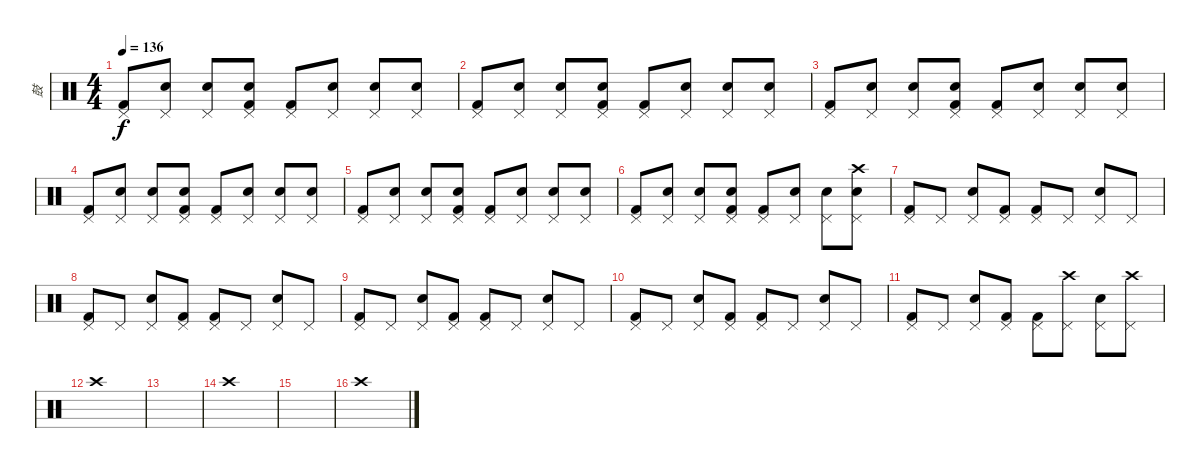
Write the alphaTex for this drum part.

\track ("鼓" "鼓") {instrument percussion}
\staff {score}
\articulation defaults
\ts (4 4)
\tempo 136
\clef neutral
\ks c
("Pedal Hi-Hat (hit)" "Kick (hit) 2").8{dy f} ("Metronome (bell)" "Pedal Hi-Hat (hit)").8 ("Pedal Hi-Hat (hit)" "Electric Snare (hit)").8 ("Metronome (bell)" "Pedal Hi-Hat (hit)" "Kick (hit) 2").8 ("Pedal Hi-Hat (hit)" "Kick (hit) 2").8 ("Metronome (bell)" "Pedal Hi-Hat (hit)").8 ("Pedal Hi-Hat (hit)" "Electric Snare (hit)").8 ("Metronome (bell)" "Pedal Hi-Hat (hit)").8 |
("Pedal Hi-Hat (hit)" "Kick (hit) 2").8 ("Metronome (bell)" "Pedal Hi-Hat (hit)").8 ("Pedal Hi-Hat (hit)" "Electric Snare (hit)").8 ("Metronome (bell)" "Pedal Hi-Hat (hit)" "Kick (hit) 2").8 ("Pedal Hi-Hat (hit)" "Kick (hit) 2").8 ("Metronome (bell)" "Pedal Hi-Hat (hit)").8 ("Pedal Hi-Hat (hit)" "Electric Snare (hit)").8 ("Metronome (bell)" "Pedal Hi-Hat (hit)").8 |
("Pedal Hi-Hat (hit)" "Kick (hit) 2").8 ("Metronome (bell)" "Pedal Hi-Hat (hit)").8 ("Pedal Hi-Hat (hit)" "Electric Snare (hit)").8 ("Metronome (bell)" "Pedal Hi-Hat (hit)" "Kick (hit) 2").8 ("Pedal Hi-Hat (hit)" "Kick (hit) 2").8 ("Metronome (bell)" "Pedal Hi-Hat (hit)").8 ("Pedal Hi-Hat (hit)" "Electric Snare (hit)").8 ("Metronome (bell)" "Pedal Hi-Hat (hit)").8 |
("Pedal Hi-Hat (hit)" "Kick (hit) 2").8 ("Metronome (bell)" "Pedal Hi-Hat (hit)").8 ("Pedal Hi-Hat (hit)" "Electric Snare (hit)").8 ("Metronome (bell)" "Pedal Hi-Hat (hit)" "Kick (hit) 2").8 ("Pedal Hi-Hat (hit)" "Kick (hit) 2").8 ("Metronome (bell)" "Pedal Hi-Hat (hit)").8 ("Pedal Hi-Hat (hit)" "Electric Snare (hit)").8 ("Metronome (bell)" "Pedal Hi-Hat (hit)").8 |
("Pedal Hi-Hat (hit)" "Kick (hit) 2").8 ("Metronome (bell)" "Pedal Hi-Hat (hit)").8 ("Pedal Hi-Hat (hit)" "Electric Snare (hit)").8 ("Metronome (bell)" "Pedal Hi-Hat (hit)" "Kick (hit) 2").8 ("Pedal Hi-Hat (hit)" "Kick (hit) 2").8 ("Metronome (bell)" "Pedal Hi-Hat (hit)").8 ("Pedal Hi-Hat (hit)" "Electric Snare (hit)").8 ("Metronome (bell)" "Pedal Hi-Hat (hit)").8 |
("Pedal Hi-Hat (hit)" "Kick (hit) 2").8 ("Metronome (bell)" "Pedal Hi-Hat (hit)").8 ("Pedal Hi-Hat (hit)" "Electric Snare (hit)").8 ("Metronome (bell)" "Pedal Hi-Hat (hit)" "Kick (hit) 2").8 ("Pedal Hi-Hat (hit)" "Kick (hit) 2").8 ("Metronome (bell)" "Pedal Hi-Hat (hit)").8 ("Pedal Hi-Hat (hit)" "Electric Snare (hit)").8 ("Metronome (bell)" "Pedal Hi-Hat (hit)" "Crash high (hit)").8 |
("Pedal Hi-Hat (hit)" "Kick (hit) 2").8 "Pedal Hi-Hat (hit)".8 ("Pedal Hi-Hat (hit)" "Electric Snare (hit)").8 ("Pedal Hi-Hat (hit)" "Kick (hit) 2").8 ("Pedal Hi-Hat (hit)" "Kick (hit) 2").8 "Pedal Hi-Hat (hit)".8 ("Pedal Hi-Hat (hit)" "Electric Snare (hit)").8 "Pedal Hi-Hat (hit)".8 |
("Pedal Hi-Hat (hit)" "Kick (hit) 2").8 "Pedal Hi-Hat (hit)".8 ("Pedal Hi-Hat (hit)" "Electric Snare (hit)").8 ("Pedal Hi-Hat (hit)" "Kick (hit) 2").8 ("Pedal Hi-Hat (hit)" "Kick (hit) 2").8 "Pedal Hi-Hat (hit)".8 ("Pedal Hi-Hat (hit)" "Electric Snare (hit)").8 "Pedal Hi-Hat (hit)".8 |
("Pedal Hi-Hat (hit)" "Kick (hit) 2").8 "Pedal Hi-Hat (hit)".8 ("Pedal Hi-Hat (hit)" "Electric Snare (hit)").8 ("Pedal Hi-Hat (hit)" "Kick (hit) 2").8 ("Pedal Hi-Hat (hit)" "Kick (hit) 2").8 "Pedal Hi-Hat (hit)".8 ("Pedal Hi-Hat (hit)" "Electric Snare (hit)").8 "Pedal Hi-Hat (hit)".8 |
("Pedal Hi-Hat (hit)" "Kick (hit) 2").8 "Pedal Hi-Hat (hit)".8 ("Pedal Hi-Hat (hit)" "Electric Snare (hit)").8 ("Pedal Hi-Hat (hit)" "Kick (hit) 2").8 ("Pedal Hi-Hat (hit)" "Kick (hit) 2").8 "Pedal Hi-Hat (hit)".8 ("Pedal Hi-Hat (hit)" "Electric Snare (hit)").8 "Pedal Hi-Hat (hit)".8 |
("Pedal Hi-Hat (hit)" "Kick (hit) 2").8 "Pedal Hi-Hat (hit)".8 ("Pedal Hi-Hat (hit)" "Electric Snare (hit)").8 ("Pedal Hi-Hat (hit)" "Kick (hit) 2").8 ("Pedal Hi-Hat (hit)" "Kick (hit) 2").8 ("Pedal Hi-Hat (hit)" "Crash high (hit)").8 ("Pedal Hi-Hat (hit)" "Electric Snare (hit)").8 ("Pedal Hi-Hat (hit)" "Crash high (hit)").8 |
"Crash high (hit)".1 |
|
"Crash high (hit)".1 |
|
"Crash high (hit)".1
